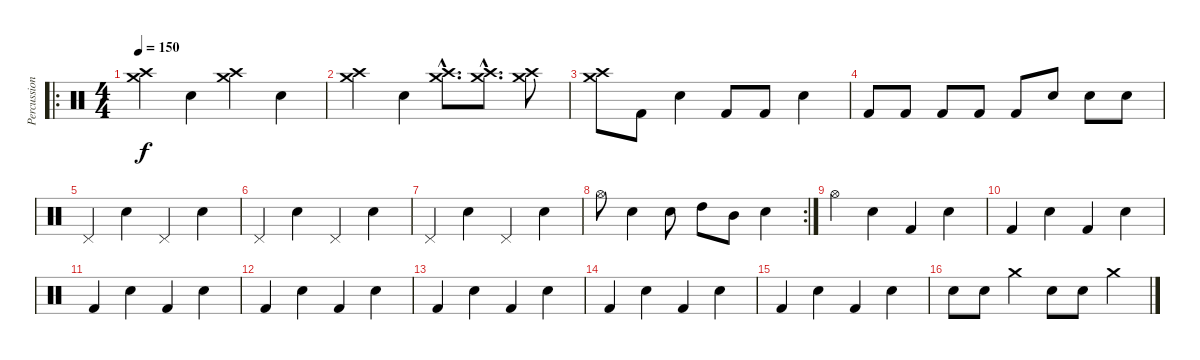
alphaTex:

\track ("Percussion" "Percussion") {instrument percussion}
\staff {score}
\articulation defaults
\ro
\ts (4 4)
\tempo 150
\clef neutral
\ks c
("Crash medium (hit)" "Crash high (hit)").4{dy f} "Snare (hit) 2".4 ("Crash medium (hit)" "Crash high (hit)").4 "Snare (hit) 2".4 |
("Crash medium (hit)" "Crash high (hit)").4 "Snare (hit) 2".4 ("Crash medium (hit)"{hac} "Crash high (hit)"{hac}).8{d} ("Crash medium (hit)"{hac} "Crash high (hit)"{hac}).8{d} ("Crash medium (hit)" "Crash high (hit)").8 |
("Crash medium (hit)" "Crash high (hit)").8 "Kick (hit) 2".8 "Snare (hit) 2".4 "Kick (hit) 2".8 "Kick (hit) 2".8 "Snare (hit) 2".4 |
"Kick (hit) 2".8 "Kick (hit) 2".8 "Kick (hit) 2".8 "Kick (hit) 2".8 "Kick (hit) 2".8 "Snare (hit) 2".8 "Snare (hit) 2".8 "Snare (hit) 2".8 |
"Pedal Hi-Hat (hit)".4 "Snare (hit) 2".4 "Pedal Hi-Hat (hit)".4 "Snare (hit) 2".4 |
"Pedal Hi-Hat (hit)".4 "Snare (hit) 2".4 "Pedal Hi-Hat (hit)".4 "Snare (hit) 2".4 |
"Pedal Hi-Hat (hit)".4 "Snare (hit) 2".4 "Pedal Hi-Hat (hit)".4 "Snare (hit) 2".4 |
\rc 2 "Hi-Hat (open)".8 "Snare (hit) 2".4 "Snare (hit) 2".8 "High Tom (hit)".8 "Mid Tom (hit)".8 "Snare (hit) 2".4
|
"Hi-Hat (open)".4 "Snare (hit) 2".4 "Kick (hit) 2".4 "Snare (hit) 2".4 |
"Kick (hit) 2".4 "Snare (hit) 2".4 "Kick (hit) 2".4 "Snare (hit) 2".4 |
"Kick (hit) 2".4 "Snare (hit) 2".4 "Kick (hit) 2".4 "Snare (hit) 2".4 |
"Kick (hit) 2".4 "Snare (hit) 2".4 "Kick (hit) 2".4 "Snare (hit) 2".4 |
"Kick (hit) 2".4 "Snare (hit) 2".4 "Kick (hit) 2".4 "Snare (hit) 2".4 |
"Kick (hit) 2".4 "Snare (hit) 2".4 "Kick (hit) 2".4 "Snare (hit) 2".4 |
"Kick (hit) 2".4 "Snare (hit) 2".4 "Kick (hit) 2".4 "Snare (hit) 2".4 |
"Snare (hit) 2".8 "Snare (hit) 2".8 "Crash medium (hit)".4 "Snare (hit) 2".8 "Snare (hit) 2".8 "Crash medium (hit)".4
